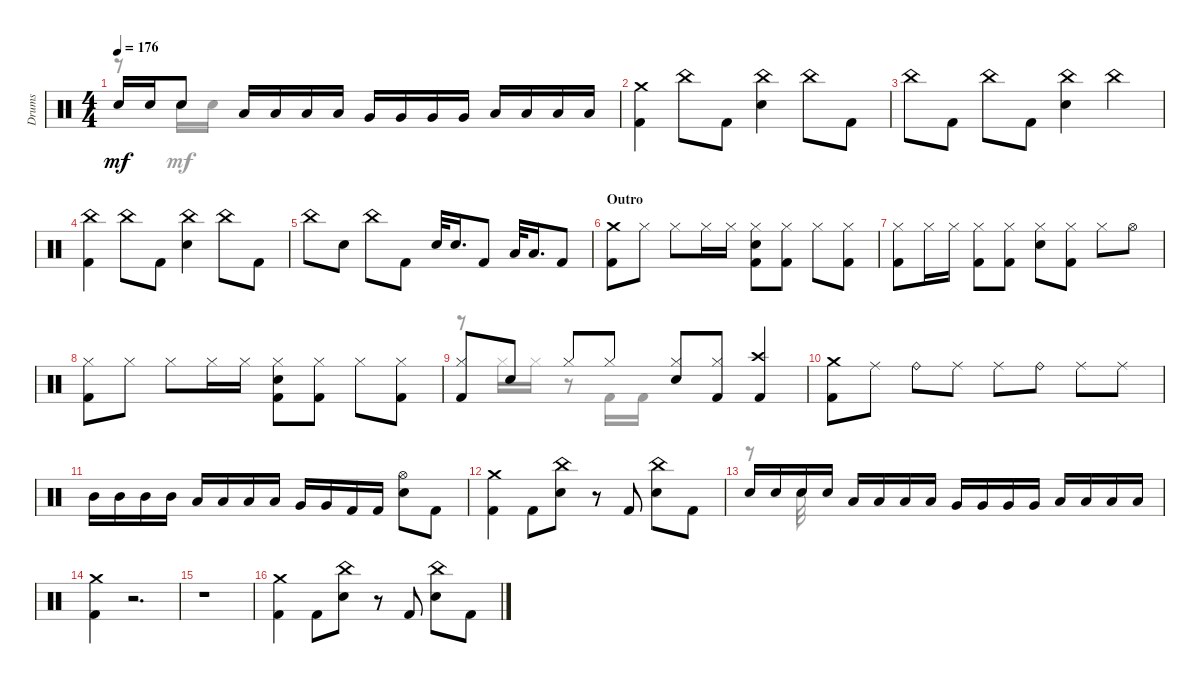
\track ("Drums" "Drums") {instrument percussion}
\staff {score}
\articulation defaults
\voice
\ts (4 4)
\tempo 176
\clef neutral
\ks aminor "Snare (hit) 2".16{dy mf} "Snare (hit) 2".16 "Snare (hit) 2".8 "Low Tom (hit)".16 "Low Tom (hit)".16 "Low Tom (hit)".16 "Low Tom (hit)".16 "Very Low Tom (hit)".16 "Very Low Tom (hit)".16 "Very Low Tom (hit)".16 "Very Low Tom (hit)".16 "Low Floor Tom (hit)".16 "Low Floor Tom (hit)".16 "Low Floor Tom (hit)".16 "Low Floor Tom (hit)".16
|
("Kick (hit) 2" "Crash medium (hit)").4 "China (hit)".8 "Kick (hit) 2".8 ("Snare (hit) 2" "China (hit)").4 "China (hit)".8 "Kick (hit) 2".8 |
"China (hit)".8 "Kick (hit) 2".8 "China (hit)".8 "Kick (hit) 2".8 ("Snare (hit) 2" "China (hit)").4 "China (hit)".4 |
("Kick (hit) 2" "China (hit)").4 "China (hit)".8 "Kick (hit) 2".8 ("Snare (hit) 2" "China (hit)").4 "China (hit)".8 "Kick (hit) 2".8 |
"China (hit)".8 "Snare (hit) 2".8 "China (hit)".8 "Kick (hit) 2".8 "Snare (hit) 2".32 "Snare (hit) 2".16{d} "Kick (hit) 2".8 "Low Floor Tom (hit)".32 "Low Floor Tom (hit)".16{d} "Kick (hit) 2".8 |
\section ("" "Outro")
("Crash medium (hit)" "Kick (hit) 2").8 "Hi-Hat (closed)".8 "Hi-Hat (closed)".8 "Hi-Hat (closed)".16 "Hi-Hat (closed)".16 ("Kick (hit) 2" "Snare (hit) 2" "Hi-Hat (closed)").8 ("Hi-Hat (closed)" "Kick (hit) 2").8 "Hi-Hat (closed)".8 ("Kick (hit) 2" "Hi-Hat (closed)").8 |
("Kick (hit) 2" "Hi-Hat (closed)").8 "Hi-Hat (closed)".16 "Hi-Hat (closed)".16 ("Kick (hit) 2" "Hi-Hat (closed)").8 ("Hi-Hat (closed)" "Kick (hit) 2").8 ("Snare (hit) 2" "Hi-Hat (closed)").8 ("Kick (hit) 2" "Hi-Hat (closed)").8 "Hi-Hat (closed)".8 "Hi-Hat (open)".8 |
("Kick (hit) 2" "Hi-Hat (closed)").8 "Hi-Hat (closed)".8 "Hi-Hat (closed)".8 "Hi-Hat (closed)".16 "Hi-Hat (closed)".16 ("Kick (hit) 2" "Hi-Hat (closed)" "Snare (hit) 2").8 ("Kick (hit) 2" "Hi-Hat (closed)").8 "Hi-Hat (closed)".8 ("Kick (hit) 2" "Hi-Hat (closed)").8 |
("Hi-Hat (closed)" "Kick (hit) 2").8 "Snare (hit) 2".8 "Hi-Hat (closed)".8 "Hi-Hat (closed)".8 ("Snare (hit) 2" "Hi-Hat (closed)").8 ("Kick (hit) 2" "Hi-Hat (closed)").8 ("Kick (hit) 2" "Crash high (hit)").4 |
("Kick (hit) 2" "Crash medium (hit)").8 "Ride (middle)".8 "Ride (bell)".8 "Ride (middle)".8 "Ride (middle)".8 "Ride (bell)".8 "Ride (middle)".8 "Ride (middle)".8 |
"Mid Tom (hit)".16 "Mid Tom (hit)".16 "Mid Tom (hit)".16 "Mid Tom (hit)".16 "Low Tom (hit)".16 "Low Tom (hit)".16 "Low Tom (hit)".16 "Low Tom (hit)".16 "Very Low Tom (hit)".16 "Very Low Tom (hit)".16 "Kick (hit) 2".16 "Kick (hit) 2".16 ("Hi-Hat (open)" "Snare (hit) 2").8 "Kick (hit) 2".8 |
("Crash medium (hit)" "Kick (hit) 2").4 "Kick (hit) 2".8 ("Snare (hit) 2" "China (hit)").8 r.8 "Kick (hit) 2".8 ("Snare (hit) 2" "China (hit)").8 "Kick (hit) 2".8 |
"Snare (hit) 2".16 "Snare (hit) 2".16 "Snare (hit) 2".16 "Snare (hit) 2".16 "Low Tom (hit)".16 "Low Tom (hit)".16 "Low Tom (hit)".16 "Low Tom (hit)".16 "Very Low Tom (hit)".16 "Very Low Tom (hit)".16 "Very Low Tom (hit)".16 "Very Low Tom (hit)".16 "Low Floor Tom (hit)".16 "Low Floor Tom (hit)".16 "Low Floor Tom (hit)".16 "Low Floor Tom (hit)".16 |
("Crash medium (hit)" "Kick (hit) 2").4 r.2{d} |
r.1 |
("Crash medium (hit)" "Kick (hit) 2").4 "Kick (hit) 2".8 ("Snare (hit) 2" "China (hit)").8 r.8 "Kick (hit) 2".8 ("China (hit)" "Snare (hit) 2").8 "Kick (hit) 2".8
\voice
\clef neutral
\ottava regular
\simile none
\ks aminor
r.8{dy mf} "Snare (hit) 2".16 "Snare (hit) 2".16 |
|
|
|
|
|
|
|
r.8 "Hi-Hat (closed)".16 "Hi-Hat (closed)".16 r.8 "Kick (hit) 2".16 "Kick (hit) 2".16 |
|
|
|
r.8 "Snare (hit) 2".32 |
|
|
